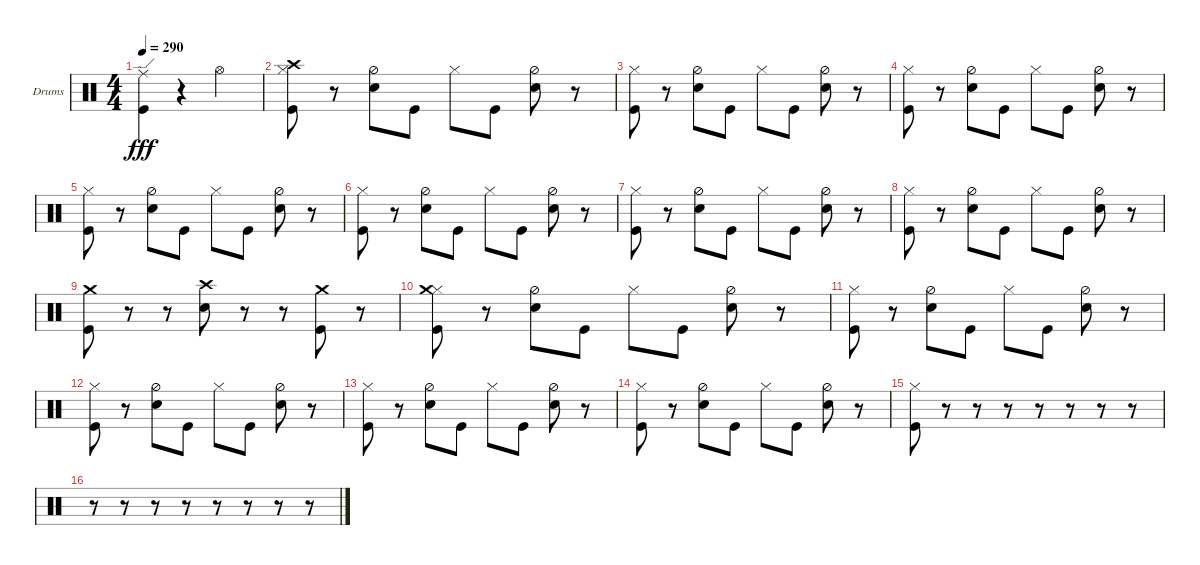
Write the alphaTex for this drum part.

\defaultSystemsLayout 4
\bracketExtendMode groupsimilarinstruments
\firstSystemTrackNameOrientation horizontal
\otherSystemsTrackNameOrientation horizontal
\track ("Drumkit" "Drums") {instrument percussion}
\staff {score}
\articulation defaults
\ts (4 4)
\tempo 290
\clef neutral
\ks c
("Kick (hit)" "Ride (edge)").4{dy fff} r.4 "Hi-Hat (open)".2 |
("Kick (hit)" "Crash high (hit)" "Hi-Hat (closed)").8 r.8 ("Snare (hit) 2" "Hi-Hat (half)").8 "Kick (hit)".8 "Hi-Hat (closed)".8 "Kick (hit)".8 ("Snare (hit) 2" "Hi-Hat (half)").8 r.8 |
("Kick (hit)" "Hi-Hat (closed)").8 r.8 ("Snare (hit) 2" "Hi-Hat (half)").8 "Kick (hit)".8 "Hi-Hat (closed)".8 "Kick (hit)".8 ("Snare (hit) 2" "Hi-Hat (half)").8 r.8 |
("Kick (hit)" "Hi-Hat (closed)").8 r.8 ("Snare (hit) 2" "Hi-Hat (half)").8 "Kick (hit)".8 "Hi-Hat (closed)".8 "Kick (hit)".8 ("Snare (hit) 2" "Hi-Hat (half)").8 r.8 |
("Kick (hit)" "Hi-Hat (closed)").8 r.8 ("Snare (hit) 2" "Hi-Hat (half)").8 "Kick (hit)".8 "Hi-Hat (closed)".8 "Kick (hit)".8 ("Snare (hit) 2" "Hi-Hat (half)").8 r.8 |
("Kick (hit)" "Hi-Hat (closed)").8 r.8 ("Snare (hit) 2" "Hi-Hat (half)").8 "Kick (hit)".8 "Hi-Hat (closed)".8 "Kick (hit)".8 ("Snare (hit) 2" "Hi-Hat (half)").8 r.8 |
("Kick (hit)" "Hi-Hat (closed)").8 r.8 ("Snare (hit) 2" "Hi-Hat (half)").8 "Kick (hit)".8 "Hi-Hat (closed)".8 "Kick (hit)".8 ("Snare (hit) 2" "Hi-Hat (half)").8 r.8 |
("Kick (hit)" "Hi-Hat (closed)").8 r.8 ("Snare (hit) 2" "Hi-Hat (half)").8 "Kick (hit)".8 "Hi-Hat (closed)".8 "Kick (hit)".8 ("Snare (hit) 2" "Hi-Hat (half)").8 r.8 |
("Kick (hit)" "Crash medium (hit)").8 r.8 r.8 ("Snare (hit) 2" "Crash high (hit)").8 r.8 r.8 ("Kick (hit)" "Crash medium (hit)").8 r.8 |
("Kick (hit)" "Hi-Hat (closed)" "Crash medium (hit)").8 r.8 ("Snare (hit) 2" "Hi-Hat (half)").8 "Kick (hit)".8 "Hi-Hat (closed)".8 "Kick (hit)".8 ("Snare (hit) 2" "Hi-Hat (half)").8 r.8 |
("Kick (hit)" "Hi-Hat (closed)").8 r.8 ("Snare (hit) 2" "Hi-Hat (half)").8 "Kick (hit)".8 "Hi-Hat (closed)".8 "Kick (hit)".8 ("Snare (hit) 2" "Hi-Hat (half)").8 r.8 |
("Kick (hit)" "Hi-Hat (closed)").8 r.8 ("Snare (hit) 2" "Hi-Hat (half)").8 "Kick (hit)".8 "Hi-Hat (closed)".8 "Kick (hit)".8 ("Snare (hit) 2" "Hi-Hat (half)").8 r.8 |
("Kick (hit)" "Hi-Hat (closed)").8 r.8 ("Snare (hit) 2" "Hi-Hat (half)").8 "Kick (hit)".8 "Hi-Hat (closed)".8 "Kick (hit)".8 ("Snare (hit) 2" "Hi-Hat (half)").8 r.8 |
("Kick (hit)" "Hi-Hat (closed)").8 r.8 ("Snare (hit) 2" "Hi-Hat (half)").8 "Kick (hit)".8 "Hi-Hat (closed)".8 "Kick (hit)".8 ("Snare (hit) 2" "Hi-Hat (half)").8 r.8 |
("Kick (hit)" "Hi-Hat (closed)").8 r.8 r.8 r.8 r.8 r.8 r.8 r.8 |
r.8 r.8 r.8 r.8 r.8 r.8 r.8 r.8
